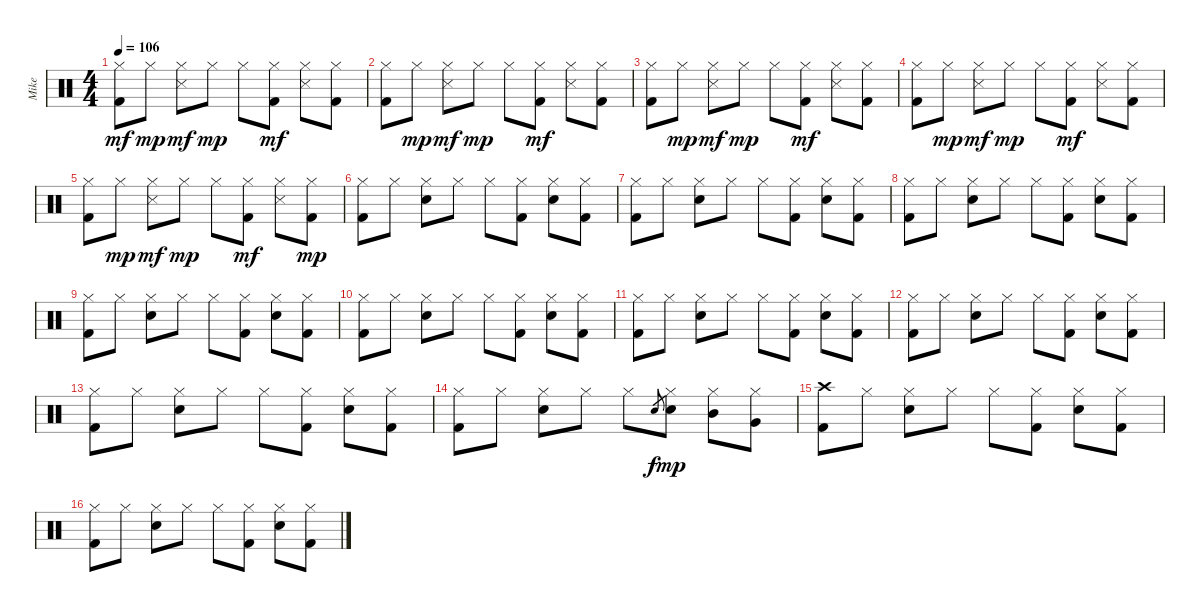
\track ("Mike" "Mike") {instrument percussion}
\staff {score}
\articulation defaults
\ts (4 4)
\tempo 106
\clef neutral
\ks c
("Hi-Hat (closed)" "Kick (hit) 2").8{dy mf} "Hi-Hat (closed)".8{dy mp} ("Hi-Hat (closed)" "Snare (side stick) 3").8{dy mf} "Hi-Hat (closed)".8{dy mp} "Hi-Hat (closed)".8 ("Hi-Hat (closed)" "Kick (hit) 2").8{dy mf} ("Hi-Hat (closed)" "Snare (side stick) 3").8 ("Hi-Hat (closed)" "Kick (hit) 2").8 |
("Hi-Hat (closed)" "Kick (hit) 2").8 "Hi-Hat (closed)".8{dy mp} ("Hi-Hat (closed)" "Snare (side stick) 3").8{dy mf} "Hi-Hat (closed)".8{dy mp} "Hi-Hat (closed)".8 ("Hi-Hat (closed)" "Kick (hit) 2").8{dy mf} ("Hi-Hat (closed)" "Snare (side stick) 3").8 ("Hi-Hat (closed)" "Kick (hit) 2").8 |
("Hi-Hat (closed)" "Kick (hit) 2").8 "Hi-Hat (closed)".8{dy mp} ("Hi-Hat (closed)" "Snare (side stick) 3").8{dy mf} "Hi-Hat (closed)".8{dy mp} "Hi-Hat (closed)".8 ("Hi-Hat (closed)" "Kick (hit) 2").8{dy mf} ("Hi-Hat (closed)" "Snare (side stick) 3").8 ("Hi-Hat (closed)" "Kick (hit) 2").8 |
("Hi-Hat (closed)" "Kick (hit) 2").8 "Hi-Hat (closed)".8{dy mp} ("Hi-Hat (closed)" "Snare (side stick) 3").8{dy mf} "Hi-Hat (closed)".8{dy mp} "Hi-Hat (closed)".8 ("Hi-Hat (closed)" "Kick (hit) 2").8{dy mf} ("Hi-Hat (closed)" "Snare (side stick) 3").8 ("Hi-Hat (closed)" "Kick (hit) 2").8 |
("Hi-Hat (closed)" "Kick (hit) 2").8 "Hi-Hat (closed)".8{dy mp} ("Hi-Hat (closed)" "Snare (side stick) 3").8{dy mf} "Hi-Hat (closed)".8{dy mp} "Hi-Hat (closed)".8 ("Hi-Hat (closed)" "Kick (hit) 2").8{dy mf} ("Hi-Hat (closed)" "Snare (side stick) 3").8 ("Hi-Hat (closed)" "Kick (hit) 2").8{dy mp} |
("Hi-Hat (closed)" "Kick (hit) 2").8 "Hi-Hat (closed)".8 ("Hi-Hat (closed)" "Electric Snare (hit)").8 "Hi-Hat (closed)".8 "Hi-Hat (closed)".8 ("Hi-Hat (closed)" "Kick (hit) 2").8 ("Hi-Hat (closed)" "Electric Snare (hit)").8 ("Hi-Hat (closed)" "Kick (hit) 2").8 |
("Hi-Hat (closed)" "Kick (hit) 2").8 "Hi-Hat (closed)".8 ("Hi-Hat (closed)" "Electric Snare (hit)").8 "Hi-Hat (closed)".8 "Hi-Hat (closed)".8 ("Hi-Hat (closed)" "Kick (hit) 2").8 ("Hi-Hat (closed)" "Electric Snare (hit)").8 ("Hi-Hat (closed)" "Kick (hit) 2").8 |
("Hi-Hat (closed)" "Kick (hit) 2").8 "Hi-Hat (closed)".8 ("Hi-Hat (closed)" "Electric Snare (hit)").8 "Hi-Hat (closed)".8 "Hi-Hat (closed)".8 ("Hi-Hat (closed)" "Kick (hit) 2").8 ("Hi-Hat (closed)" "Electric Snare (hit)").8 ("Hi-Hat (closed)" "Kick (hit) 2").8 |
("Hi-Hat (closed)" "Kick (hit) 2").8 "Hi-Hat (closed)".8 ("Hi-Hat (closed)" "Electric Snare (hit)").8 "Hi-Hat (closed)".8 "Hi-Hat (closed)".8 ("Hi-Hat (closed)" "Kick (hit) 2").8 ("Hi-Hat (closed)" "Electric Snare (hit)").8 ("Hi-Hat (closed)" "Kick (hit) 2").8 |
("Hi-Hat (closed)" "Kick (hit) 2").8 "Hi-Hat (closed)".8 ("Hi-Hat (closed)" "Electric Snare (hit)").8 "Hi-Hat (closed)".8 "Hi-Hat (closed)".8 ("Hi-Hat (closed)" "Kick (hit) 2").8 ("Hi-Hat (closed)" "Electric Snare (hit)").8 ("Hi-Hat (closed)" "Kick (hit) 2").8 |
("Hi-Hat (closed)" "Kick (hit) 2").8 "Hi-Hat (closed)".8 ("Hi-Hat (closed)" "Electric Snare (hit)").8 "Hi-Hat (closed)".8 "Hi-Hat (closed)".8 ("Hi-Hat (closed)" "Kick (hit) 2").8 ("Hi-Hat (closed)" "Electric Snare (hit)").8 ("Hi-Hat (closed)" "Kick (hit) 2").8 |
("Hi-Hat (closed)" "Kick (hit) 2").8 "Hi-Hat (closed)".8 ("Hi-Hat (closed)" "Electric Snare (hit)").8 "Hi-Hat (closed)".8 "Hi-Hat (closed)".8 ("Hi-Hat (closed)" "Kick (hit) 2").8 ("Hi-Hat (closed)" "Electric Snare (hit)").8 ("Hi-Hat (closed)" "Kick (hit) 2").8 |
("Hi-Hat (closed)" "Kick (hit) 2").8 "Hi-Hat (closed)".8 ("Hi-Hat (closed)" "Electric Snare (hit)").8 "Hi-Hat (closed)".8 "Hi-Hat (closed)".8 ("Hi-Hat (closed)" "Kick (hit) 2").8 ("Hi-Hat (closed)" "Electric Snare (hit)").8 ("Hi-Hat (closed)" "Kick (hit) 2").8 |
("Hi-Hat (closed)" "Kick (hit) 2").8 "Hi-Hat (closed)".8 ("Hi-Hat (closed)" "Electric Snare (hit)").8 "Hi-Hat (closed)".8 "Hi-Hat (closed)".8 "Electric Snare (hit)".8{gr dy f} ("Hi-Hat (closed)" "Electric Snare (hit)").8{dy mp} ("Hi-Hat (closed)" "Mid Tom (hit)").8 ("Hi-Hat (closed)" "Very Low Tom (hit)").8 |
("Crash high (hit)" "Kick (hit) 2").8 "Hi-Hat (closed)".8 ("Hi-Hat (closed)" "Electric Snare (hit)").8 "Hi-Hat (closed)".8 "Hi-Hat (closed)".8 ("Hi-Hat (closed)" "Kick (hit) 2").8 ("Hi-Hat (closed)" "Electric Snare (hit)").8 ("Hi-Hat (closed)" "Kick (hit) 2").8 |
("Hi-Hat (closed)" "Kick (hit) 2").8 "Hi-Hat (closed)".8 ("Hi-Hat (closed)" "Electric Snare (hit)").8 "Hi-Hat (closed)".8 "Hi-Hat (closed)".8 ("Hi-Hat (closed)" "Kick (hit) 2").8 ("Hi-Hat (closed)" "Electric Snare (hit)").8 ("Hi-Hat (closed)" "Kick (hit) 2").8
